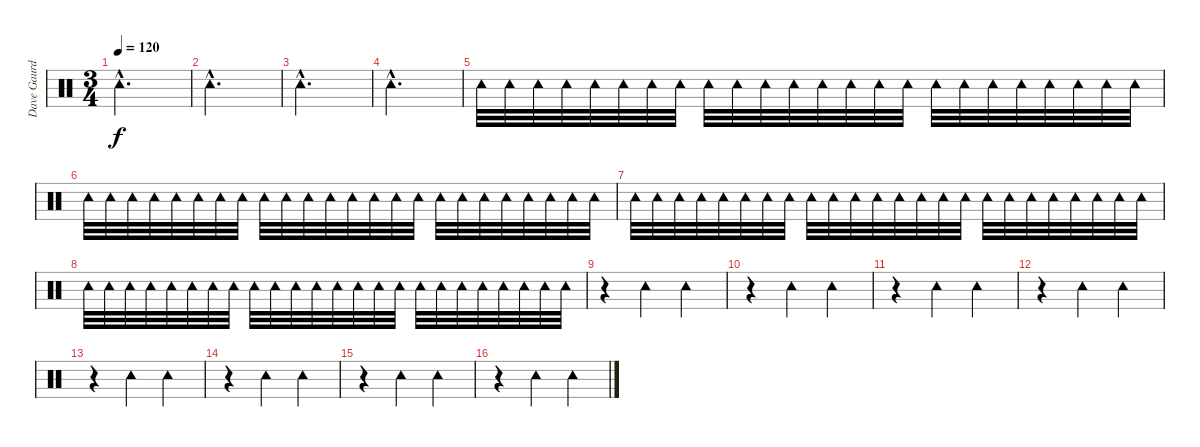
\track ("Dave Gaurd" "Dave Gaurd") {instrument percussion}
\staff {score}
\articulation defaults
\ts (3 4)
\tempo 120
\clef neutral
\ks c "Tambourine (hit)"{hac}.2{d dy f}
|
"Tambourine (hit)"{hac}.2{d} |
"Tambourine (hit)"{hac}.2{d} |
"Tambourine (hit)"{hac}.2{d} |
"Tambourine (hit)".32 "Tambourine (hit)".32 "Tambourine (hit)".32 "Tambourine (hit)".32 "Tambourine (hit)".32 "Tambourine (hit)".32 "Tambourine (hit)".32 "Tambourine (hit)".32 "Tambourine (hit)".32 "Tambourine (hit)".32 "Tambourine (hit)".32 "Tambourine (hit)".32 "Tambourine (hit)".32 "Tambourine (hit)".32 "Tambourine (hit)".32 "Tambourine (hit)".32 "Tambourine (hit)".32 "Tambourine (hit)".32 "Tambourine (hit)".32 "Tambourine (hit)".32 "Tambourine (hit)".32 "Tambourine (hit)".32 "Tambourine (hit)".32 "Tambourine (hit)".32 |
"Tambourine (hit)".32 "Tambourine (hit)".32 "Tambourine (hit)".32 "Tambourine (hit)".32 "Tambourine (hit)".32 "Tambourine (hit)".32 "Tambourine (hit)".32 "Tambourine (hit)".32 "Tambourine (hit)".32 "Tambourine (hit)".32 "Tambourine (hit)".32 "Tambourine (hit)".32 "Tambourine (hit)".32 "Tambourine (hit)".32 "Tambourine (hit)".32 "Tambourine (hit)".32 "Tambourine (hit)".32 "Tambourine (hit)".32 "Tambourine (hit)".32 "Tambourine (hit)".32 "Tambourine (hit)".32 "Tambourine (hit)".32 "Tambourine (hit)".32 "Tambourine (hit)".32 |
"Tambourine (hit)".32 "Tambourine (hit)".32 "Tambourine (hit)".32 "Tambourine (hit)".32 "Tambourine (hit)".32 "Tambourine (hit)".32 "Tambourine (hit)".32 "Tambourine (hit)".32 "Tambourine (hit)".32 "Tambourine (hit)".32 "Tambourine (hit)".32 "Tambourine (hit)".32 "Tambourine (hit)".32 "Tambourine (hit)".32 "Tambourine (hit)".32 "Tambourine (hit)".32 "Tambourine (hit)".32 "Tambourine (hit)".32 "Tambourine (hit)".32 "Tambourine (hit)".32 "Tambourine (hit)".32 "Tambourine (hit)".32 "Tambourine (hit)".32 "Tambourine (hit)".32 |
"Tambourine (hit)".32 "Tambourine (hit)".32 "Tambourine (hit)".32 "Tambourine (hit)".32 "Tambourine (hit)".32 "Tambourine (hit)".32 "Tambourine (hit)".32 "Tambourine (hit)".32 "Tambourine (hit)".32 "Tambourine (hit)".32 "Tambourine (hit)".32 "Tambourine (hit)".32 "Tambourine (hit)".32 "Tambourine (hit)".32 "Tambourine (hit)".32 "Tambourine (hit)".32 "Tambourine (hit)".32 "Tambourine (hit)".32 "Tambourine (hit)".32 "Tambourine (hit)".32 "Tambourine (hit)".32 "Tambourine (hit)".32 "Tambourine (hit)".32 "Tambourine (hit)".32 |
r.4 "Tambourine (hit)".4 "Tambourine (hit)".4 |
r.4 "Tambourine (hit)".4 "Tambourine (hit)".4 |
r.4 "Tambourine (hit)".4 "Tambourine (hit)".4 |
r.4 "Tambourine (hit)".4 "Tambourine (hit)".4 |
r.4 "Tambourine (hit)".4 "Tambourine (hit)".4 |
r.4 "Tambourine (hit)".4 "Tambourine (hit)".4 |
r.4 "Tambourine (hit)".4 "Tambourine (hit)".4 |
r.4 "Tambourine (hit)".4 "Tambourine (hit)".4
